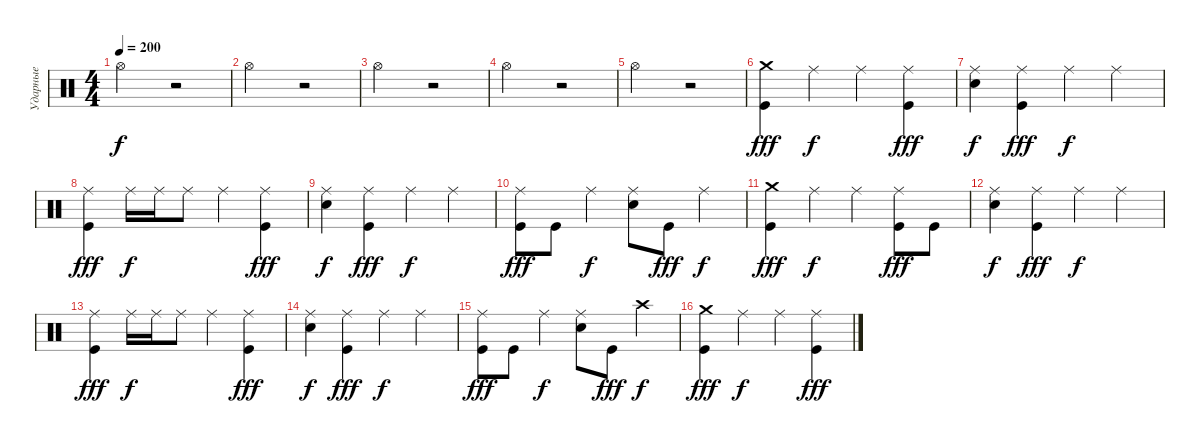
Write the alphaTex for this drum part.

\track ("Ударные" "Ударные") {instrument percussion}
\staff {score}
\articulation defaults
\ts (4 4)
\tempo 200
\clef neutral
\ks c "Hi-Hat (open)".2{dy f}
r.2 |
"Hi-Hat (open)".2 r.2 |
"Hi-Hat (open)".2 r.2 |
"Hi-Hat (open)".2 r.2 |
"Hi-Hat (open)".2 r.2 |
("Crash medium (hit)" "Kick (hit)").4{dy fff} "Ride (middle)".4{dy f} "Ride (middle)".4 ("Ride (middle)" "Kick (hit)").4{dy fff} |
("Ride (middle)" "Electric Snare (hit)").4{dy f} ("Ride (middle)" "Kick (hit)").4{dy fff} "Ride (middle)".4{dy f} "Ride (middle)".4 |
("Ride (middle)" "Kick (hit)").4{dy fff} "Ride (middle)".16{dy f} "Ride (middle)".16 "Ride (middle)".8 "Ride (middle)".4 ("Ride (middle)" "Kick (hit)").4{dy fff} |
("Ride (middle)" "Electric Snare (hit)").4{dy f} ("Ride (middle)" "Kick (hit)").4{dy fff} "Ride (middle)".4{dy f} "Ride (middle)".4 |
("Ride (middle)" "Kick (hit)").8{dy fff} "Kick (hit)".8 "Ride (middle)".4{dy f} ("Ride (middle)" "Electric Snare (hit)").8 "Kick (hit)".8{dy fff} "Ride (middle)".4{dy f} |
("Crash medium (hit)" "Kick (hit)").4{dy fff} "Ride (middle)".4{dy f} "Ride (middle)".4 ("Ride (middle)" "Kick (hit)").8{dy fff} "Kick (hit)".8 |
("Ride (middle)" "Electric Snare (hit)").4{dy f} ("Ride (middle)" "Kick (hit)").4{dy fff} "Ride (middle)".4{dy f} "Ride (middle)".4 |
("Ride (middle)" "Kick (hit)").4{dy fff} "Ride (middle)".16{dy f} "Ride (middle)".16 "Ride (middle)".8 "Ride (middle)".4 ("Ride (middle)" "Kick (hit)").4{dy fff} |
("Ride (middle)" "Electric Snare (hit)").4{dy f} ("Ride (middle)" "Kick (hit)").4{dy fff} "Ride (middle)".4{dy f} "Ride (middle)".4 |
("Ride (middle)" "Kick (hit)").8{dy fff} "Kick (hit)".8 "Ride (middle)".4{dy f} ("Ride (middle)" "Electric Snare (hit)").8 "Kick (hit)".8{dy fff} "Crash high (hit)".4{dy f} |
("Crash medium (hit)" "Kick (hit)").4{dy fff} "Ride (middle)".4{dy f} "Ride (middle)".4 ("Ride (middle)" "Kick (hit)").4{dy fff}
